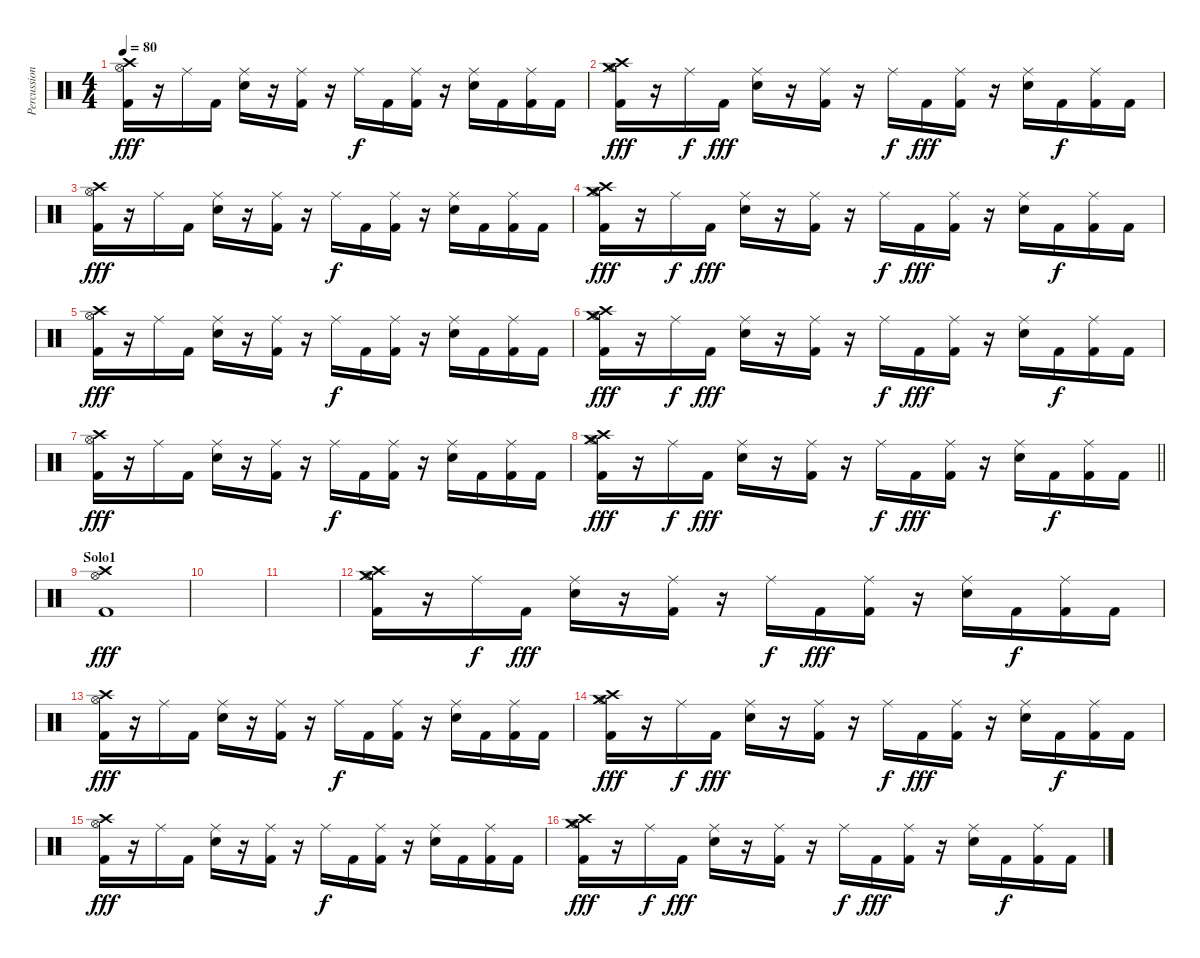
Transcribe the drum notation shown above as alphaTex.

\track ("Percussion" "Percussion") {instrument percussion}
\staff {score}
\articulation defaults
\ts (4 4)
\tempo 80
\clef neutral
\ks c
("Hi-Hat (open)" "Kick (hit) 2" "Crash high (hit)").16{dy fff} r.16 "Ride (middle)".16 "Kick (hit) 2".16 ("Electric Snare (hit)" "Ride (middle)").16 r.16 ("Ride (middle)" "Kick (hit) 2").16 r.16 "Ride (middle)".16{dy f} "Kick (hit) 2".16 ("Ride (middle)" "Kick (hit) 2").16 r.16 ("Ride (middle)" "Electric Snare (hit)").16 "Kick (hit) 2".16 ("Kick (hit) 2" "Ride (middle)").16 "Kick (hit) 2".16 |
("Kick (hit) 2" "Hi-Hat (open)" "Crash high (hit)" "Crash medium (hit)").16{dy fff} r.16 "Ride (middle)".16{dy f} "Kick (hit) 2".16{dy fff} ("Electric Snare (hit)" "Ride (middle)").16 r.16 ("Ride (middle)" "Kick (hit) 2").16 r.16 "Ride (middle)".16{dy f} "Kick (hit) 2".16{dy fff} ("Ride (middle)" "Kick (hit) 2").16 r.16 ("Ride (middle)" "Electric Snare (hit)").16 "Kick (hit) 2".16{dy f} ("Kick (hit) 2" "Ride (middle)").16 "Kick (hit) 2".16 |
("Hi-Hat (open)" "Kick (hit) 2" "Crash high (hit)").16{dy fff} r.16 "Ride (middle)".16 "Kick (hit) 2".16 ("Electric Snare (hit)" "Ride (middle)").16 r.16 ("Ride (middle)" "Kick (hit) 2").16 r.16 "Ride (middle)".16{dy f} "Kick (hit) 2".16 ("Ride (middle)" "Kick (hit) 2").16 r.16 ("Ride (middle)" "Electric Snare (hit)").16 "Kick (hit) 2".16 ("Kick (hit) 2" "Ride (middle)").16 "Kick (hit) 2".16 |
("Kick (hit) 2" "Hi-Hat (open)" "Crash high (hit)" "Crash medium (hit)").16{dy fff} r.16 "Ride (middle)".16{dy f} "Kick (hit) 2".16{dy fff} ("Electric Snare (hit)" "Ride (middle)").16 r.16 ("Ride (middle)" "Kick (hit) 2").16 r.16 "Ride (middle)".16{dy f} "Kick (hit) 2".16{dy fff} ("Ride (middle)" "Kick (hit) 2").16 r.16 ("Ride (middle)" "Electric Snare (hit)").16 "Kick (hit) 2".16{dy f} ("Kick (hit) 2" "Ride (middle)").16 "Kick (hit) 2".16 |
("Hi-Hat (open)" "Kick (hit) 2" "Crash high (hit)").16{dy fff} r.16 "Ride (middle)".16 "Kick (hit) 2".16 ("Electric Snare (hit)" "Ride (middle)").16 r.16 ("Ride (middle)" "Kick (hit) 2").16 r.16 "Ride (middle)".16{dy f} "Kick (hit) 2".16 ("Ride (middle)" "Kick (hit) 2").16 r.16 ("Ride (middle)" "Electric Snare (hit)").16 "Kick (hit) 2".16 ("Kick (hit) 2" "Ride (middle)").16 "Kick (hit) 2".16 |
("Kick (hit) 2" "Hi-Hat (open)" "Crash high (hit)" "Crash medium (hit)").16{dy fff} r.16 "Ride (middle)".16{dy f} "Kick (hit) 2".16{dy fff} ("Electric Snare (hit)" "Ride (middle)").16 r.16 ("Ride (middle)" "Kick (hit) 2").16 r.16 "Ride (middle)".16{dy f} "Kick (hit) 2".16{dy fff} ("Ride (middle)" "Kick (hit) 2").16 r.16 ("Ride (middle)" "Electric Snare (hit)").16 "Kick (hit) 2".16{dy f} ("Kick (hit) 2" "Ride (middle)").16 "Kick (hit) 2".16 |
("Hi-Hat (open)" "Kick (hit) 2" "Crash high (hit)").16{dy fff} r.16 "Ride (middle)".16 "Kick (hit) 2".16 ("Electric Snare (hit)" "Ride (middle)").16 r.16 ("Ride (middle)" "Kick (hit) 2").16 r.16 "Ride (middle)".16{dy f} "Kick (hit) 2".16 ("Ride (middle)" "Kick (hit) 2").16 r.16 ("Ride (middle)" "Electric Snare (hit)").16 "Kick (hit) 2".16 ("Kick (hit) 2" "Ride (middle)").16 "Kick (hit) 2".16 |
\barLineRight lightlight
("Kick (hit) 2" "Hi-Hat (open)" "Crash high (hit)" "Crash medium (hit)").16{dy fff} r.16 "Ride (middle)".16{dy f} "Kick (hit) 2".16{dy fff} ("Electric Snare (hit)" "Ride (middle)").16 r.16 ("Ride (middle)" "Kick (hit) 2").16 r.16 "Ride (middle)".16{dy f} "Kick (hit) 2".16{dy fff} ("Ride (middle)" "Kick (hit) 2").16 r.16 ("Ride (middle)" "Electric Snare (hit)").16 "Kick (hit) 2".16{dy f} ("Kick (hit) 2" "Ride (middle)").16 "Kick (hit) 2".16 |
\section ("" "Solo1")
("Hi-Hat (open)" "Kick (hit) 2" "Crash high (hit)").1{dy fff} |
|
|
("Kick (hit) 2" "Hi-Hat (open)" "Crash high (hit)" "Crash medium (hit)").16 r.16 "Ride (middle)".16{dy f} "Kick (hit) 2".16{dy fff} ("Electric Snare (hit)" "Ride (middle)").16 r.16 ("Ride (middle)" "Kick (hit) 2").16 r.16 "Ride (middle)".16{dy f} "Kick (hit) 2".16{dy fff} ("Ride (middle)" "Kick (hit) 2").16 r.16 ("Ride (middle)" "Electric Snare (hit)").16 "Kick (hit) 2".16{dy f} ("Kick (hit) 2" "Ride (middle)").16 "Kick (hit) 2".16 |
("Hi-Hat (open)" "Kick (hit) 2" "Crash high (hit)").16{dy fff} r.16 "Ride (middle)".16 "Kick (hit) 2".16 ("Electric Snare (hit)" "Ride (middle)").16 r.16 ("Ride (middle)" "Kick (hit) 2").16 r.16 "Ride (middle)".16{dy f} "Kick (hit) 2".16 ("Ride (middle)" "Kick (hit) 2").16 r.16 ("Ride (middle)" "Electric Snare (hit)").16 "Kick (hit) 2".16 ("Kick (hit) 2" "Ride (middle)").16 "Kick (hit) 2".16 |
("Kick (hit) 2" "Hi-Hat (open)" "Crash high (hit)" "Crash medium (hit)").16{dy fff} r.16 "Ride (middle)".16{dy f} "Kick (hit) 2".16{dy fff} ("Electric Snare (hit)" "Ride (middle)").16 r.16 ("Ride (middle)" "Kick (hit) 2").16 r.16 "Ride (middle)".16{dy f} "Kick (hit) 2".16{dy fff} ("Ride (middle)" "Kick (hit) 2").16 r.16 ("Ride (middle)" "Electric Snare (hit)").16 "Kick (hit) 2".16{dy f} ("Kick (hit) 2" "Ride (middle)").16 "Kick (hit) 2".16 |
("Hi-Hat (open)" "Kick (hit) 2" "Crash high (hit)").16{dy fff} r.16 "Ride (middle)".16 "Kick (hit) 2".16 ("Electric Snare (hit)" "Ride (middle)").16 r.16 ("Ride (middle)" "Kick (hit) 2").16 r.16 "Ride (middle)".16{dy f} "Kick (hit) 2".16 ("Ride (middle)" "Kick (hit) 2").16 r.16 ("Ride (middle)" "Electric Snare (hit)").16 "Kick (hit) 2".16 ("Kick (hit) 2" "Ride (middle)").16 "Kick (hit) 2".16 |
("Kick (hit) 2" "Hi-Hat (open)" "Crash high (hit)" "Crash medium (hit)").16{dy fff} r.16 "Ride (middle)".16{dy f} "Kick (hit) 2".16{dy fff} ("Electric Snare (hit)" "Ride (middle)").16 r.16 ("Ride (middle)" "Kick (hit) 2").16 r.16 "Ride (middle)".16{dy f} "Kick (hit) 2".16{dy fff} ("Ride (middle)" "Kick (hit) 2").16 r.16 ("Ride (middle)" "Electric Snare (hit)").16 "Kick (hit) 2".16{dy f} ("Kick (hit) 2" "Ride (middle)").16 "Kick (hit) 2".16
